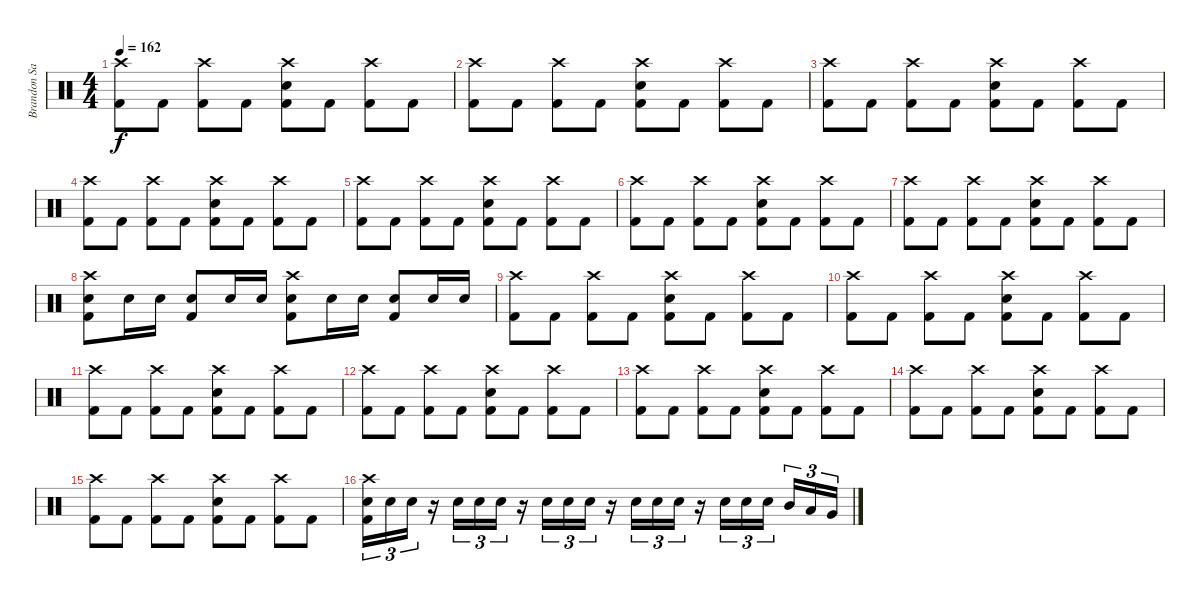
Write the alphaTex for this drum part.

\track ("Brandon Saller" "Brandon Sa") {instrument percussion}
\staff {score}
\articulation defaults
\ts (4 4)
\tempo 162
\clef neutral
\ks c
("Crash high (hit)" "Kick (hit) 2").8{dy f} "Kick (hit) 2".8 ("Crash high (hit)" "Kick (hit) 2").8 "Kick (hit) 2".8 ("Crash high (hit)" "Electric Snare (hit)" "Kick (hit) 2").8 "Kick (hit) 2".8 ("Crash high (hit)" "Kick (hit) 2").8 "Kick (hit) 2".8 |
("Crash high (hit)" "Kick (hit) 2").8 "Kick (hit) 2".8 ("Crash high (hit)" "Kick (hit) 2").8 "Kick (hit) 2".8 ("Crash high (hit)" "Electric Snare (hit)" "Kick (hit) 2").8 "Kick (hit) 2".8 ("Crash high (hit)" "Kick (hit) 2").8 "Kick (hit) 2".8 |
("Crash high (hit)" "Kick (hit) 2").8 "Kick (hit) 2".8 ("Crash high (hit)" "Kick (hit) 2").8 "Kick (hit) 2".8 ("Crash high (hit)" "Electric Snare (hit)" "Kick (hit) 2").8 "Kick (hit) 2".8 ("Crash high (hit)" "Kick (hit) 2").8 "Kick (hit) 2".8 |
("Crash high (hit)" "Kick (hit) 2").8 "Kick (hit) 2".8 ("Crash high (hit)" "Kick (hit) 2").8 "Kick (hit) 2".8 ("Crash high (hit)" "Electric Snare (hit)" "Kick (hit) 2").8 "Kick (hit) 2".8 ("Crash high (hit)" "Kick (hit) 2").8 "Kick (hit) 2".8 |
("Crash high (hit)" "Kick (hit) 2").8 "Kick (hit) 2".8 ("Crash high (hit)" "Kick (hit) 2").8 "Kick (hit) 2".8 ("Crash high (hit)" "Electric Snare (hit)" "Kick (hit) 2").8 "Kick (hit) 2".8 ("Crash high (hit)" "Kick (hit) 2").8 "Kick (hit) 2".8 |
("Crash high (hit)" "Kick (hit) 2").8 "Kick (hit) 2".8 ("Crash high (hit)" "Kick (hit) 2").8 "Kick (hit) 2".8 ("Crash high (hit)" "Electric Snare (hit)" "Kick (hit) 2").8 "Kick (hit) 2".8 ("Crash high (hit)" "Kick (hit) 2").8 "Kick (hit) 2".8 |
("Crash high (hit)" "Kick (hit) 2").8 "Kick (hit) 2".8 ("Crash high (hit)" "Kick (hit) 2").8 "Kick (hit) 2".8 ("Crash high (hit)" "Electric Snare (hit)" "Kick (hit) 2").8 "Kick (hit) 2".8 ("Crash high (hit)" "Kick (hit) 2").8 "Kick (hit) 2".8 |
("Crash high (hit)" "Electric Snare (hit)" "Kick (hit) 2").8 "Electric Snare (hit)".16 "Electric Snare (hit)".16 ("Electric Snare (hit)" "Kick (hit) 2").8 "Electric Snare (hit)".16 "Electric Snare (hit)".16 ("Crash high (hit)" "Electric Snare (hit)" "Kick (hit) 2").8 "Electric Snare (hit)".16 "Electric Snare (hit)".16 ("Electric Snare (hit)" "Kick (hit) 2").8 "Electric Snare (hit)".16 "Electric Snare (hit)".16 |
("Crash high (hit)" "Kick (hit) 2").8 "Kick (hit) 2".8 ("Crash high (hit)" "Kick (hit) 2").8 "Kick (hit) 2".8 ("Crash high (hit)" "Electric Snare (hit)" "Kick (hit) 2").8 "Kick (hit) 2".8 ("Crash high (hit)" "Kick (hit) 2").8 "Kick (hit) 2".8 |
("Crash high (hit)" "Kick (hit) 2").8 "Kick (hit) 2".8 ("Crash high (hit)" "Kick (hit) 2").8 "Kick (hit) 2".8 ("Crash high (hit)" "Electric Snare (hit)" "Kick (hit) 2").8 "Kick (hit) 2".8 ("Crash high (hit)" "Kick (hit) 2").8 "Kick (hit) 2".8 |
("Crash high (hit)" "Kick (hit) 2").8 "Kick (hit) 2".8 ("Crash high (hit)" "Kick (hit) 2").8 "Kick (hit) 2".8 ("Crash high (hit)" "Electric Snare (hit)" "Kick (hit) 2").8 "Kick (hit) 2".8 ("Crash high (hit)" "Kick (hit) 2").8 "Kick (hit) 2".8 |
("Crash high (hit)" "Kick (hit) 2").8 "Kick (hit) 2".8 ("Crash high (hit)" "Kick (hit) 2").8 "Kick (hit) 2".8 ("Crash high (hit)" "Electric Snare (hit)" "Kick (hit) 2").8 "Kick (hit) 2".8 ("Crash high (hit)" "Kick (hit) 2").8 "Kick (hit) 2".8 |
("Crash high (hit)" "Kick (hit) 2").8 "Kick (hit) 2".8 ("Crash high (hit)" "Kick (hit) 2").8 "Kick (hit) 2".8 ("Crash high (hit)" "Electric Snare (hit)" "Kick (hit) 2").8 "Kick (hit) 2".8 ("Crash high (hit)" "Kick (hit) 2").8 "Kick (hit) 2".8 |
("Crash high (hit)" "Kick (hit) 2").8 "Kick (hit) 2".8 ("Crash high (hit)" "Kick (hit) 2").8 "Kick (hit) 2".8 ("Crash high (hit)" "Electric Snare (hit)" "Kick (hit) 2").8 "Kick (hit) 2".8 ("Crash high (hit)" "Kick (hit) 2").8 "Kick (hit) 2".8 |
("Crash high (hit)" "Kick (hit) 2").8 "Kick (hit) 2".8 ("Crash high (hit)" "Kick (hit) 2").8 "Kick (hit) 2".8 ("Crash high (hit)" "Electric Snare (hit)" "Kick (hit) 2").8 "Kick (hit) 2".8 ("Crash high (hit)" "Kick (hit) 2").8 "Kick (hit) 2".8 |
("Crash high (hit)" "Electric Snare (hit)" "Kick (hit) 2").16{tu (3 2)} "Electric Snare (hit)".16{tu (3 2)} "Electric Snare (hit)".16{tu (3 2)} r.16 "Electric Snare (hit)".16{tu (3 2)} "Electric Snare (hit)".16{tu (3 2)} "Electric Snare (hit)".16{tu (3 2)} r.16 "Electric Snare (hit)".16{tu (3 2)} "Electric Snare (hit)".16{tu (3 2)} "Electric Snare (hit)".16{tu (3 2)} r.16 "Electric Snare (hit)".16{tu (3 2)} "Electric Snare (hit)".16{tu (3 2)} "Electric Snare (hit)".16{tu (3 2)} r.16 "Electric Snare (hit)".16{tu (3 2)} "Electric Snare (hit)".16{tu (3 2)} "Electric Snare (hit)".16{tu (3 2) beam splitsecondary} "Mid Tom (hit)".16{tu (3 2)} "Low Tom (hit)".16{tu (3 2)} "Very Low Tom (hit)".16{tu (3 2)}
